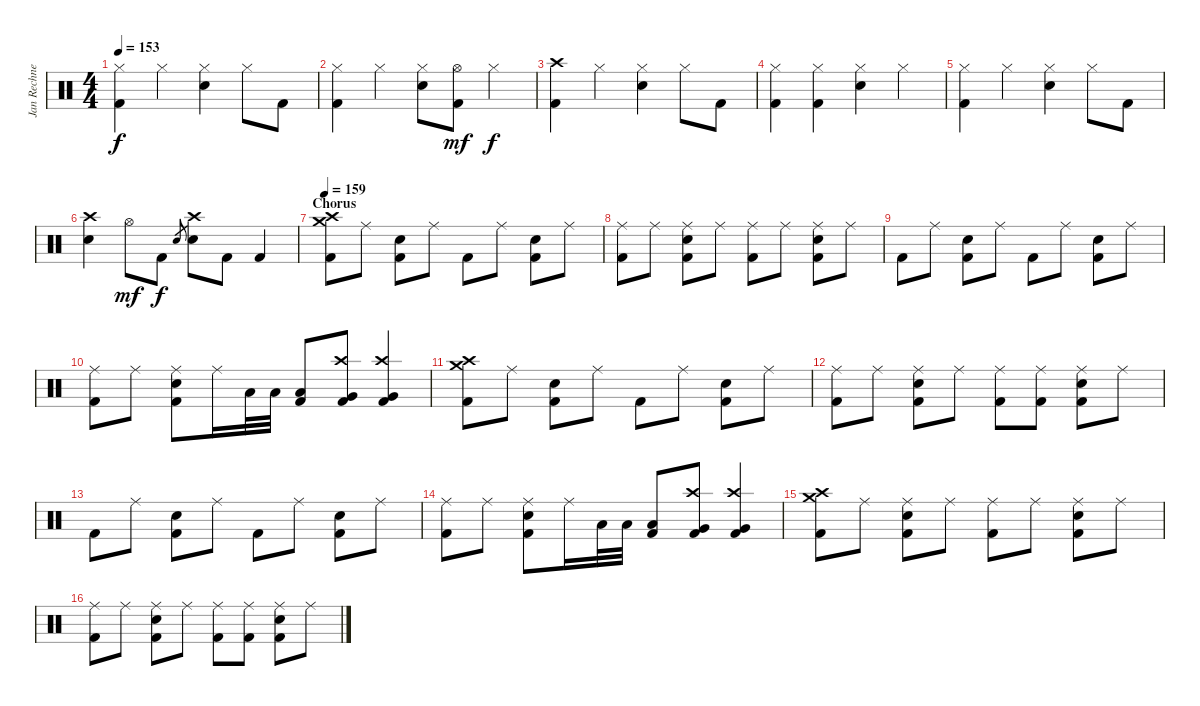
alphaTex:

\track ("Jan Rechnerger" "Jan Rechne") {instrument percussion}
\staff {score}
\articulation defaults
\ts (4 4)
\tempo 153
\clef neutral
\ks c
("Hi-Hat (closed)" "Kick (hit) 2").4{dy f} "Hi-Hat (closed)".4 ("Hi-Hat (closed)" "Snare (hit) 2").4 "Hi-Hat (closed)".8 "Kick (hit) 2".8 |
("Hi-Hat (closed)" "Kick (hit) 2").4 "Hi-Hat (closed)".4 ("Hi-Hat (closed)" "Snare (hit) 2").8 ("Hi-Hat (open)" "Kick (hit) 2").8{dy mf} "Hi-Hat (closed)".4{dy f} |
("Crash high (hit)" "Kick (hit) 2").4 "Hi-Hat (closed)".4 ("Hi-Hat (closed)" "Snare (hit) 2").4 "Hi-Hat (closed)".8 "Kick (hit) 2".8 |
("Hi-Hat (closed)" "Kick (hit) 2").4 ("Hi-Hat (closed)" "Kick (hit) 2").4 ("Hi-Hat (closed)" "Snare (hit) 2").4 "Hi-Hat (closed)".4 |
("Hi-Hat (closed)" "Kick (hit) 2").4 "Hi-Hat (closed)".4 ("Hi-Hat (closed)" "Snare (hit) 2").4 "Hi-Hat (closed)".8 "Kick (hit) 2".8 |
("Crash high (hit)" "Snare (hit) 2").4 "Hi-Hat (open)".8{dy mf} "Kick (hit) 2".8{dy f} "Snare (hit) 2".8{gr} ("Crash high (hit)" "Snare (hit) 2").8 "Kick (hit) 2".8 "Kick (hit) 2".4 |
\section ("" "Chorus")
\tempo 159
("Crash high (hit)" "Crash medium (hit)" "Kick (hit) 2").8 "Ride (middle)".8 ("Snare (hit) 2" "Kick (hit) 2").8 "Ride (middle)".8 "Kick (hit) 2".8 "Ride (middle)".8 ("Snare (hit) 2" "Kick (hit) 2").8 "Ride (middle)".8 |
("Ride (middle)" "Kick (hit) 2").8 "Ride (middle)".8 ("Ride (middle)" "Snare (hit) 2" "Kick (hit) 2").8 "Ride (middle)".8 ("Ride (middle)" "Kick (hit) 2").8 "Ride (middle)".8 ("Ride (middle)" "Snare (hit) 2" "Kick (hit) 2").8 "Ride (middle)".8 |
"Kick (hit) 2".8 "Ride (middle)".8 ("Snare (hit) 2" "Kick (hit) 2").8 "Ride (middle)".8 "Kick (hit) 2".8 "Ride (middle)".8 ("Snare (hit) 2" "Kick (hit) 2").8 "Ride (middle)".8 |
("Ride (middle)" "Kick (hit) 2").8 "Ride (middle)".8 ("Ride (middle)" "Snare (hit) 2" "Kick (hit) 2").8 "Ride (middle)".16 "Low Tom (hit)".32 "Low Tom (hit)".32 ("Low Tom (hit)" "Kick (hit) 2").8 ("Crash high (hit)" "Very Low Tom (hit)" "Kick (hit) 2").8 ("Crash high (hit)" "Very Low Tom (hit)" "Kick (hit) 2").4 |
("Crash high (hit)" "Crash medium (hit)" "Kick (hit) 2").8 "Ride (middle)".8 ("Snare (hit) 2" "Kick (hit) 2").8 "Ride (middle)".8 "Kick (hit) 2".8 "Ride (middle)".8 ("Snare (hit) 2" "Kick (hit) 2").8 "Ride (middle)".8 |
("Ride (middle)" "Kick (hit) 2").8 "Ride (middle)".8 ("Ride (middle)" "Snare (hit) 2" "Kick (hit) 2").8 "Ride (middle)".8 ("Ride (middle)" "Kick (hit) 2").8 ("Ride (middle)" "Kick (hit) 2").8 ("Ride (middle)" "Snare (hit) 2" "Kick (hit) 2").8 "Ride (middle)".8 |
"Kick (hit) 2".8 "Ride (middle)".8 ("Snare (hit) 2" "Kick (hit) 2").8 "Ride (middle)".8 "Kick (hit) 2".8 "Ride (middle)".8 ("Snare (hit) 2" "Kick (hit) 2").8 "Ride (middle)".8 |
("Ride (middle)" "Kick (hit) 2").8 "Ride (middle)".8 ("Ride (middle)" "Snare (hit) 2" "Kick (hit) 2").8 "Ride (middle)".16 "Low Tom (hit)".32 "Low Tom (hit)".32 ("Low Tom (hit)" "Kick (hit) 2").8 ("Crash high (hit)" "Very Low Tom (hit)" "Kick (hit) 2").8 ("Crash high (hit)" "Very Low Tom (hit)" "Kick (hit) 2").4 |
("Crash high (hit)" "Crash medium (hit)" "Kick (hit) 2").8 "Ride (middle)".8 ("Ride (middle)" "Snare (hit) 2" "Kick (hit) 2").8 "Ride (middle)".8 ("Ride (middle)" "Kick (hit) 2").8 "Ride (middle)".8 ("Ride (middle)" "Snare (hit) 2" "Kick (hit) 2").8 "Ride (middle)".8 |
("Ride (middle)" "Kick (hit) 2").8 "Ride (middle)".8 ("Ride (middle)" "Snare (hit) 2" "Kick (hit) 2").8 "Ride (middle)".8 ("Ride (middle)" "Kick (hit) 2").8 ("Ride (middle)" "Kick (hit) 2").8 ("Ride (middle)" "Snare (hit) 2" "Kick (hit) 2").8 "Ride (middle)".8
